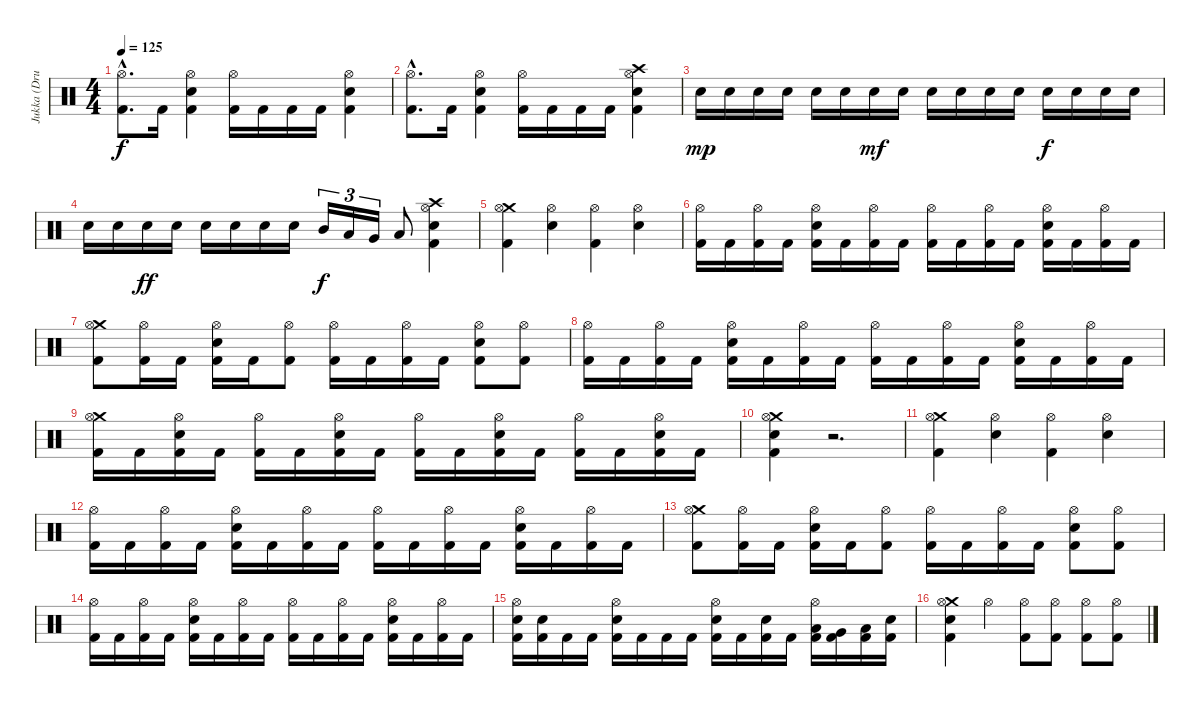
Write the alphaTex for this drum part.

\track ("Jukka (Drums)" "Jukka (Dru") {instrument percussion}
\staff {score}
\articulation defaults
\ts (4 4)
\tempo 125
\clef neutral
\ks c
("Hi-Hat (open)"{hac} "Kick (hit) 2"{hac}).8{d dy f} "Kick (hit) 2".16 ("Hi-Hat (open)" "Electric Snare (hit)" "Kick (hit) 2").4 ("Hi-Hat (open)" "Kick (hit) 2").16 "Kick (hit) 2".16 "Kick (hit) 2".16 "Kick (hit) 2".16 ("Hi-Hat (open)" "Electric Snare (hit)" "Kick (hit) 2").4 |
("Hi-Hat (open)"{hac} "Kick (hit) 2"{hac}).8{d} "Kick (hit) 2".16 ("Hi-Hat (open)" "Electric Snare (hit)" "Kick (hit) 2").4 ("Hi-Hat (open)" "Kick (hit) 2").16 "Kick (hit) 2".16 "Kick (hit) 2".16 "Kick (hit) 2".16 ("Crash high (hit)" "Hi-Hat (open)" "Electric Snare (hit)" "Kick (hit) 2").4 |
"Electric Snare (hit)".16{dy mp} "Electric Snare (hit)".16 "Electric Snare (hit)".16 "Electric Snare (hit)".16 "Electric Snare (hit)".16 "Electric Snare (hit)".16 "Electric Snare (hit)".16{dy mf} "Electric Snare (hit)".16 "Electric Snare (hit)".16 "Electric Snare (hit)".16 "Electric Snare (hit)".16 "Electric Snare (hit)".16 "Electric Snare (hit)".16{dy f} "Electric Snare (hit)".16 "Electric Snare (hit)".16 "Electric Snare (hit)".16 |
"Electric Snare (hit)".16 "Electric Snare (hit)".16 "Electric Snare (hit)".16{dy ff} "Electric Snare (hit)".16 "Electric Snare (hit)".16 "Electric Snare (hit)".16 "Electric Snare (hit)".16 "Electric Snare (hit)".16 "Mid Tom (hit)".16{tu (3 2) dy f} "Low Tom (hit)".16{tu (3 2)} "Very Low Tom (hit)".16{tu (3 2)} "Low Floor Tom (hit)".8 ("Crash high (hit)" "Hi-Hat (open)" "Electric Snare (hit)" "Kick (hit) 2").4 |
("Crash medium (hit)" "Hi-Hat (open)" "Kick (hit) 2").4 ("Hi-Hat (open)" "Electric Snare (hit)").4 ("Hi-Hat (open)" "Kick (hit) 2").4 ("Hi-Hat (open)" "Electric Snare (hit)").4 |
("Hi-Hat (open)" "Kick (hit) 2").16 "Kick (hit) 2".16 ("Hi-Hat (open)" "Kick (hit) 2").16 "Kick (hit) 2".16 ("Hi-Hat (open)" "Electric Snare (hit)" "Kick (hit) 2").16 "Kick (hit) 2".16 ("Hi-Hat (open)" "Kick (hit) 2").16 "Kick (hit) 2".16 ("Hi-Hat (open)" "Kick (hit) 2").16 "Kick (hit) 2".16 ("Hi-Hat (open)" "Kick (hit) 2").16 "Kick (hit) 2".16 ("Hi-Hat (open)" "Electric Snare (hit)" "Kick (hit) 2").16 "Kick (hit) 2".16 ("Hi-Hat (open)" "Kick (hit) 2").16 "Kick (hit) 2".16 |
("Crash medium (hit)" "Hi-Hat (open)" "Kick (hit) 2").8 ("Hi-Hat (open)" "Kick (hit) 2").16 "Kick (hit) 2".16 ("Hi-Hat (open)" "Electric Snare (hit)" "Kick (hit) 2").16 "Kick (hit) 2".16 ("Hi-Hat (open)" "Kick (hit) 2").8 ("Hi-Hat (open)" "Kick (hit) 2").16 "Kick (hit) 2".16 ("Hi-Hat (open)" "Kick (hit) 2").16 "Kick (hit) 2".16 ("Hi-Hat (open)" "Electric Snare (hit)" "Kick (hit) 2").8 ("Hi-Hat (open)" "Kick (hit) 2").8 |
("Hi-Hat (open)" "Kick (hit) 2").16 "Kick (hit) 2".16 ("Hi-Hat (open)" "Kick (hit) 2").16 "Kick (hit) 2".16 ("Hi-Hat (open)" "Electric Snare (hit)" "Kick (hit) 2").16 "Kick (hit) 2".16 ("Hi-Hat (open)" "Kick (hit) 2").16 "Kick (hit) 2".16 ("Hi-Hat (open)" "Kick (hit) 2").16 "Kick (hit) 2".16 ("Hi-Hat (open)" "Kick (hit) 2").16 "Kick (hit) 2".16 ("Hi-Hat (open)" "Electric Snare (hit)" "Kick (hit) 2").16 "Kick (hit) 2".16 ("Hi-Hat (open)" "Kick (hit) 2").16 "Kick (hit) 2".16 |
("Crash medium (hit)" "Hi-Hat (open)" "Kick (hit) 2").16 "Kick (hit) 2".16 ("Hi-Hat (open)" "Electric Snare (hit)" "Kick (hit) 2").16 "Kick (hit) 2".16 ("Hi-Hat (open)" "Kick (hit) 2").16 "Kick (hit) 2".16 ("Hi-Hat (open)" "Electric Snare (hit)" "Kick (hit) 2").16 "Kick (hit) 2".16 ("Hi-Hat (open)" "Kick (hit) 2").16 "Kick (hit) 2".16 ("Hi-Hat (open)" "Electric Snare (hit)" "Kick (hit) 2").16 "Kick (hit) 2".16 ("Hi-Hat (open)" "Kick (hit) 2").16 "Kick (hit) 2".16 ("Hi-Hat (open)" "Electric Snare (hit)" "Kick (hit) 2").16 "Kick (hit) 2".16 |
("Crash medium (hit)" "Hi-Hat (open)" "Electric Snare (hit)" "Kick (hit) 2").4 r.2{d} |
("Crash medium (hit)" "Hi-Hat (open)" "Kick (hit) 2").4 ("Hi-Hat (open)" "Electric Snare (hit)").4 ("Hi-Hat (open)" "Kick (hit) 2").4 ("Hi-Hat (open)" "Electric Snare (hit)").4 |
("Hi-Hat (open)" "Kick (hit) 2").16 "Kick (hit) 2".16 ("Hi-Hat (open)" "Kick (hit) 2").16 "Kick (hit) 2".16 ("Hi-Hat (open)" "Electric Snare (hit)" "Kick (hit) 2").16 "Kick (hit) 2".16 ("Hi-Hat (open)" "Kick (hit) 2").16 "Kick (hit) 2".16 ("Hi-Hat (open)" "Kick (hit) 2").16 "Kick (hit) 2".16 ("Hi-Hat (open)" "Kick (hit) 2").16 "Kick (hit) 2".16 ("Hi-Hat (open)" "Electric Snare (hit)" "Kick (hit) 2").16 "Kick (hit) 2".16 ("Hi-Hat (open)" "Kick (hit) 2").16 "Kick (hit) 2".16 |
("Crash medium (hit)" "Hi-Hat (open)" "Kick (hit) 2").8 ("Hi-Hat (open)" "Kick (hit) 2").16 "Kick (hit) 2".16 ("Hi-Hat (open)" "Electric Snare (hit)" "Kick (hit) 2").16 "Kick (hit) 2".16 ("Hi-Hat (open)" "Kick (hit) 2").8 ("Hi-Hat (open)" "Kick (hit) 2").16 "Kick (hit) 2".16 ("Hi-Hat (open)" "Kick (hit) 2").16 "Kick (hit) 2".16 ("Hi-Hat (open)" "Electric Snare (hit)" "Kick (hit) 2").8 ("Hi-Hat (open)" "Kick (hit) 2").8 |
("Hi-Hat (open)" "Kick (hit) 2").16 "Kick (hit) 2".16 ("Hi-Hat (open)" "Kick (hit) 2").16 "Kick (hit) 2".16 ("Hi-Hat (open)" "Electric Snare (hit)" "Kick (hit) 2").16 "Kick (hit) 2".16 ("Hi-Hat (open)" "Kick (hit) 2").16 "Kick (hit) 2".16 ("Hi-Hat (open)" "Kick (hit) 2").16 "Kick (hit) 2".16 ("Hi-Hat (open)" "Kick (hit) 2").16 "Kick (hit) 2".16 ("Hi-Hat (open)" "Electric Snare (hit)" "Kick (hit) 2").16 "Kick (hit) 2".16 ("Hi-Hat (open)" "Kick (hit) 2").16 "Kick (hit) 2".16 |
("Hi-Hat (open)" "Electric Snare (hit)" "Kick (hit) 2").16 ("Electric Snare (hit)" "Kick (hit) 2").16 "Kick (hit) 2".16 "Kick (hit) 2".16 ("Hi-Hat (open)" "Electric Snare (hit)" "Kick (hit) 2").16 "Kick (hit) 2".16 "Kick (hit) 2".16 "Kick (hit) 2".16 ("Hi-Hat (open)" "Electric Snare (hit)" "Kick (hit) 2").16 "Kick (hit) 2".16 ("Electric Snare (hit)" "Kick (hit) 2").16 "Kick (hit) 2".16 ("Hi-Hat (open)" "Low Tom (hit)" "Kick (hit) 2").16 ("Very Low Tom (hit)" "Kick (hit) 2").16 ("Low Floor Tom (hit)" "Kick (hit) 2").16 ("Electric Snare (hit)" "Kick (hit) 2").16 |
("Crash medium (hit)" "Hi-Hat (open)" "Electric Snare (hit)" "Kick (hit) 2").4 "Hi-Hat (open)".4 ("Hi-Hat (open)" "Kick (hit) 2").8 ("Hi-Hat (open)" "Kick (hit) 2").8 ("Hi-Hat (open)" "Kick (hit) 2").8 ("Hi-Hat (open)" "Kick (hit) 2").8
